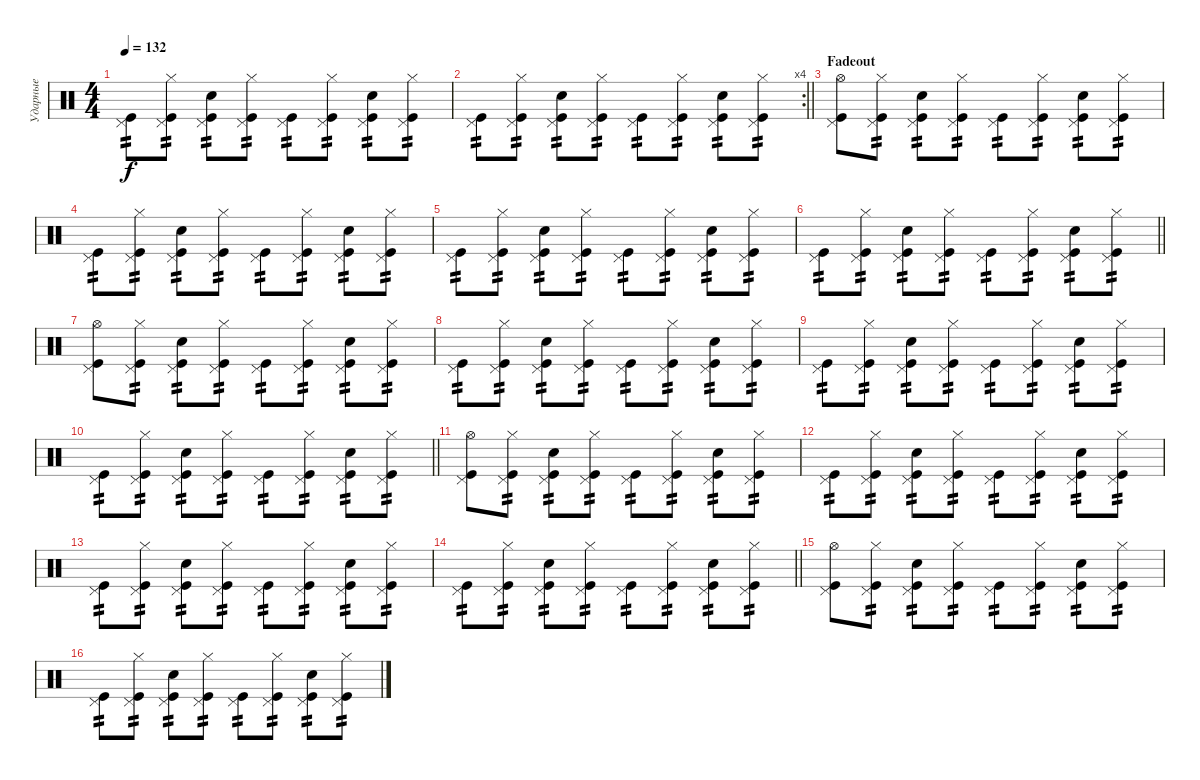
\track ("Ударные" "Ударные") {instrument percussion}
\staff {score}
\articulation defaults
\ts (4 4)
\tempo 132
\clef neutral
\ks c
("Pedal Hi-Hat (hit)" "Kick (hit)").8{tp 2 dy f} ("Pedal Hi-Hat (hit)" "Hi-Hat (closed)" "Kick (hit)").8{tp 2} ("Pedal Hi-Hat (hit)" "Electric Snare (hit)" "Kick (hit)").8{tp 2} ("Pedal Hi-Hat (hit)" "Hi-Hat (closed)" "Kick (hit)").8{tp 2} ("Pedal Hi-Hat (hit)" "Kick (hit)").8{tp 2} ("Pedal Hi-Hat (hit)" "Hi-Hat (closed)" "Kick (hit)").8{tp 2} ("Pedal Hi-Hat (hit)" "Electric Snare (hit)" "Kick (hit)").8{tp 2} ("Pedal Hi-Hat (hit)" "Hi-Hat (closed)" "Kick (hit)").8{tp 2} |
\rc 4
\barLineRight lightlight
("Pedal Hi-Hat (hit)" "Kick (hit)").8{tp 2} ("Pedal Hi-Hat (hit)" "Hi-Hat (closed)" "Kick (hit)").8{tp 2} ("Pedal Hi-Hat (hit)" "Electric Snare (hit)" "Kick (hit)").8{tp 2} ("Pedal Hi-Hat (hit)" "Hi-Hat (closed)" "Kick (hit)").8{tp 2} ("Pedal Hi-Hat (hit)" "Kick (hit)").8{tp 2} ("Pedal Hi-Hat (hit)" "Hi-Hat (closed)" "Kick (hit)").8{tp 2} ("Pedal Hi-Hat (hit)" "Electric Snare (hit)" "Kick (hit)").8{tp 2} ("Pedal Hi-Hat (hit)" "Hi-Hat (closed)" "Kick (hit)").8{tp 2} |
\section ("" "Fadeout")
("Pedal Hi-Hat (hit)" "Hi-Hat (open)" "Kick (hit)").8 ("Pedal Hi-Hat (hit)" "Hi-Hat (closed)" "Kick (hit)").8{tp 2} ("Pedal Hi-Hat (hit)" "Electric Snare (hit)" "Kick (hit)").8{tp 2} ("Pedal Hi-Hat (hit)" "Hi-Hat (closed)" "Kick (hit)").8{tp 2} ("Pedal Hi-Hat (hit)" "Kick (hit)").8{tp 2} ("Pedal Hi-Hat (hit)" "Hi-Hat (closed)" "Kick (hit)").8{tp 2} ("Pedal Hi-Hat (hit)" "Electric Snare (hit)" "Kick (hit)").8{tp 2} ("Pedal Hi-Hat (hit)" "Hi-Hat (closed)" "Kick (hit)").8{tp 2} |
("Pedal Hi-Hat (hit)" "Kick (hit)").8{tp 2} ("Pedal Hi-Hat (hit)" "Hi-Hat (closed)" "Kick (hit)").8{tp 2} ("Pedal Hi-Hat (hit)" "Electric Snare (hit)" "Kick (hit)").8{tp 2} ("Pedal Hi-Hat (hit)" "Hi-Hat (closed)" "Kick (hit)").8{tp 2} ("Pedal Hi-Hat (hit)" "Kick (hit)").8{tp 2} ("Pedal Hi-Hat (hit)" "Hi-Hat (closed)" "Kick (hit)").8{tp 2} ("Pedal Hi-Hat (hit)" "Electric Snare (hit)" "Kick (hit)").8{tp 2} ("Pedal Hi-Hat (hit)" "Hi-Hat (closed)" "Kick (hit)").8{tp 2} |
("Pedal Hi-Hat (hit)" "Kick (hit)").8{tp 2} ("Pedal Hi-Hat (hit)" "Hi-Hat (closed)" "Kick (hit)").8{tp 2} ("Pedal Hi-Hat (hit)" "Electric Snare (hit)" "Kick (hit)").8{tp 2} ("Pedal Hi-Hat (hit)" "Hi-Hat (closed)" "Kick (hit)").8{tp 2} ("Pedal Hi-Hat (hit)" "Kick (hit)").8{tp 2} ("Pedal Hi-Hat (hit)" "Hi-Hat (closed)" "Kick (hit)").8{tp 2} ("Pedal Hi-Hat (hit)" "Electric Snare (hit)" "Kick (hit)").8{tp 2} ("Pedal Hi-Hat (hit)" "Hi-Hat (closed)" "Kick (hit)").8{tp 2} |
\barLineRight lightlight
("Pedal Hi-Hat (hit)" "Kick (hit)").8{tp 2} ("Pedal Hi-Hat (hit)" "Hi-Hat (closed)" "Kick (hit)").8{tp 2} ("Pedal Hi-Hat (hit)" "Electric Snare (hit)" "Kick (hit)").8{tp 2} ("Pedal Hi-Hat (hit)" "Hi-Hat (closed)" "Kick (hit)").8{tp 2} ("Pedal Hi-Hat (hit)" "Kick (hit)").8{tp 2} ("Pedal Hi-Hat (hit)" "Hi-Hat (closed)" "Kick (hit)").8{tp 2} ("Pedal Hi-Hat (hit)" "Electric Snare (hit)" "Kick (hit)").8{tp 2} ("Pedal Hi-Hat (hit)" "Hi-Hat (closed)" "Kick (hit)").8{tp 2} |
("Pedal Hi-Hat (hit)" "Hi-Hat (open)" "Kick (hit)").8 ("Pedal Hi-Hat (hit)" "Hi-Hat (closed)" "Kick (hit)").8{tp 2} ("Pedal Hi-Hat (hit)" "Electric Snare (hit)" "Kick (hit)").8{tp 2} ("Pedal Hi-Hat (hit)" "Hi-Hat (closed)" "Kick (hit)").8{tp 2} ("Pedal Hi-Hat (hit)" "Kick (hit)").8{tp 2} ("Pedal Hi-Hat (hit)" "Hi-Hat (closed)" "Kick (hit)").8{tp 2} ("Pedal Hi-Hat (hit)" "Electric Snare (hit)" "Kick (hit)").8{tp 2} ("Pedal Hi-Hat (hit)" "Hi-Hat (closed)" "Kick (hit)").8{tp 2} |
("Pedal Hi-Hat (hit)" "Kick (hit)").8{tp 2} ("Pedal Hi-Hat (hit)" "Hi-Hat (closed)" "Kick (hit)").8{tp 2} ("Pedal Hi-Hat (hit)" "Electric Snare (hit)" "Kick (hit)").8{tp 2} ("Pedal Hi-Hat (hit)" "Hi-Hat (closed)" "Kick (hit)").8{tp 2} ("Pedal Hi-Hat (hit)" "Kick (hit)").8{tp 2} ("Pedal Hi-Hat (hit)" "Hi-Hat (closed)" "Kick (hit)").8{tp 2} ("Pedal Hi-Hat (hit)" "Electric Snare (hit)" "Kick (hit)").8{tp 2} ("Pedal Hi-Hat (hit)" "Hi-Hat (closed)" "Kick (hit)").8{tp 2} |
("Pedal Hi-Hat (hit)" "Kick (hit)").8{tp 2} ("Pedal Hi-Hat (hit)" "Hi-Hat (closed)" "Kick (hit)").8{tp 2} ("Pedal Hi-Hat (hit)" "Electric Snare (hit)" "Kick (hit)").8{tp 2} ("Pedal Hi-Hat (hit)" "Hi-Hat (closed)" "Kick (hit)").8{tp 2} ("Pedal Hi-Hat (hit)" "Kick (hit)").8{tp 2} ("Pedal Hi-Hat (hit)" "Hi-Hat (closed)" "Kick (hit)").8{tp 2} ("Pedal Hi-Hat (hit)" "Electric Snare (hit)" "Kick (hit)").8{tp 2} ("Pedal Hi-Hat (hit)" "Hi-Hat (closed)" "Kick (hit)").8{tp 2} |
\barLineRight lightlight
("Pedal Hi-Hat (hit)" "Kick (hit)").8{tp 2} ("Pedal Hi-Hat (hit)" "Hi-Hat (closed)" "Kick (hit)").8{tp 2} ("Pedal Hi-Hat (hit)" "Electric Snare (hit)" "Kick (hit)").8{tp 2} ("Pedal Hi-Hat (hit)" "Hi-Hat (closed)" "Kick (hit)").8{tp 2} ("Pedal Hi-Hat (hit)" "Kick (hit)").8{tp 2} ("Pedal Hi-Hat (hit)" "Hi-Hat (closed)" "Kick (hit)").8{tp 2} ("Pedal Hi-Hat (hit)" "Electric Snare (hit)" "Kick (hit)").8{tp 2} ("Pedal Hi-Hat (hit)" "Hi-Hat (closed)" "Kick (hit)").8{tp 2} |
("Pedal Hi-Hat (hit)" "Hi-Hat (open)" "Kick (hit)").8 ("Pedal Hi-Hat (hit)" "Hi-Hat (closed)" "Kick (hit)").8{tp 2} ("Pedal Hi-Hat (hit)" "Electric Snare (hit)" "Kick (hit)").8{tp 2} ("Pedal Hi-Hat (hit)" "Hi-Hat (closed)" "Kick (hit)").8{tp 2} ("Pedal Hi-Hat (hit)" "Kick (hit)").8{tp 2} ("Pedal Hi-Hat (hit)" "Hi-Hat (closed)" "Kick (hit)").8{tp 2} ("Pedal Hi-Hat (hit)" "Electric Snare (hit)" "Kick (hit)").8{tp 2} ("Pedal Hi-Hat (hit)" "Hi-Hat (closed)" "Kick (hit)").8{tp 2} |
("Pedal Hi-Hat (hit)" "Kick (hit)").8{tp 2} ("Pedal Hi-Hat (hit)" "Hi-Hat (closed)" "Kick (hit)").8{tp 2} ("Pedal Hi-Hat (hit)" "Electric Snare (hit)" "Kick (hit)").8{tp 2} ("Pedal Hi-Hat (hit)" "Hi-Hat (closed)" "Kick (hit)").8{tp 2} ("Pedal Hi-Hat (hit)" "Kick (hit)").8{tp 2} ("Pedal Hi-Hat (hit)" "Hi-Hat (closed)" "Kick (hit)").8{tp 2} ("Pedal Hi-Hat (hit)" "Electric Snare (hit)" "Kick (hit)").8{tp 2} ("Pedal Hi-Hat (hit)" "Hi-Hat (closed)" "Kick (hit)").8{tp 2} |
("Pedal Hi-Hat (hit)" "Kick (hit)").8{tp 2} ("Pedal Hi-Hat (hit)" "Hi-Hat (closed)" "Kick (hit)").8{tp 2} ("Pedal Hi-Hat (hit)" "Electric Snare (hit)" "Kick (hit)").8{tp 2} ("Pedal Hi-Hat (hit)" "Hi-Hat (closed)" "Kick (hit)").8{tp 2} ("Pedal Hi-Hat (hit)" "Kick (hit)").8{tp 2} ("Pedal Hi-Hat (hit)" "Hi-Hat (closed)" "Kick (hit)").8{tp 2} ("Pedal Hi-Hat (hit)" "Electric Snare (hit)" "Kick (hit)").8{tp 2} ("Pedal Hi-Hat (hit)" "Hi-Hat (closed)" "Kick (hit)").8{tp 2} |
\barLineRight lightlight
("Pedal Hi-Hat (hit)" "Kick (hit)").8{tp 2} ("Pedal Hi-Hat (hit)" "Hi-Hat (closed)" "Kick (hit)").8{tp 2} ("Pedal Hi-Hat (hit)" "Electric Snare (hit)" "Kick (hit)").8{tp 2} ("Pedal Hi-Hat (hit)" "Hi-Hat (closed)" "Kick (hit)").8{tp 2} ("Pedal Hi-Hat (hit)" "Kick (hit)").8{tp 2} ("Pedal Hi-Hat (hit)" "Hi-Hat (closed)" "Kick (hit)").8{tp 2} ("Pedal Hi-Hat (hit)" "Electric Snare (hit)" "Kick (hit)").8{tp 2} ("Pedal Hi-Hat (hit)" "Hi-Hat (closed)" "Kick (hit)").8{tp 2} |
("Pedal Hi-Hat (hit)" "Hi-Hat (open)" "Kick (hit)").8 ("Pedal Hi-Hat (hit)" "Hi-Hat (closed)" "Kick (hit)").8{tp 2} ("Pedal Hi-Hat (hit)" "Electric Snare (hit)" "Kick (hit)").8{tp 2} ("Pedal Hi-Hat (hit)" "Hi-Hat (closed)" "Kick (hit)").8{tp 2} ("Pedal Hi-Hat (hit)" "Kick (hit)").8{tp 2} ("Pedal Hi-Hat (hit)" "Hi-Hat (closed)" "Kick (hit)").8{tp 2} ("Pedal Hi-Hat (hit)" "Electric Snare (hit)" "Kick (hit)").8{tp 2} ("Pedal Hi-Hat (hit)" "Hi-Hat (closed)" "Kick (hit)").8{tp 2} |
("Pedal Hi-Hat (hit)" "Kick (hit)").8{tp 2} ("Pedal Hi-Hat (hit)" "Hi-Hat (closed)" "Kick (hit)").8{tp 2} ("Pedal Hi-Hat (hit)" "Electric Snare (hit)" "Kick (hit)").8{tp 2} ("Pedal Hi-Hat (hit)" "Hi-Hat (closed)" "Kick (hit)").8{tp 2} ("Pedal Hi-Hat (hit)" "Kick (hit)").8{tp 2} ("Pedal Hi-Hat (hit)" "Hi-Hat (closed)" "Kick (hit)").8{tp 2} ("Pedal Hi-Hat (hit)" "Electric Snare (hit)" "Kick (hit)").8{tp 2} ("Pedal Hi-Hat (hit)" "Hi-Hat (closed)" "Kick (hit)").8{tp 2}
